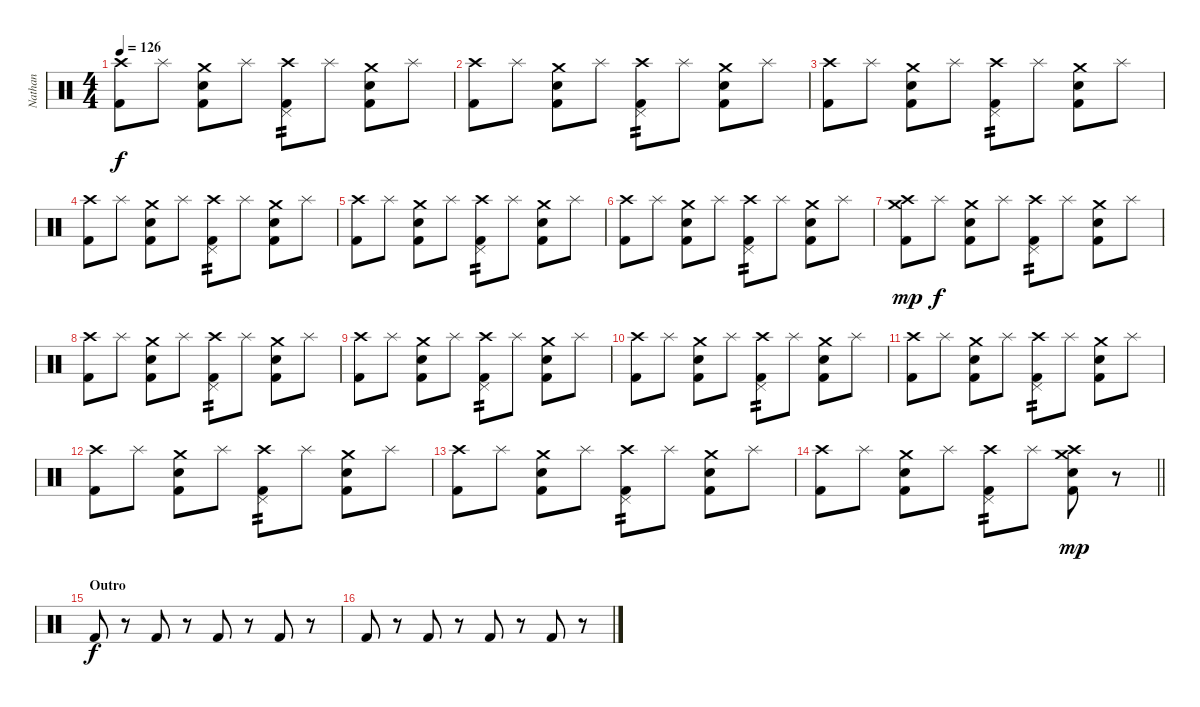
\track ("Nathan" "Nathan") {instrument percussion}
\staff {score}
\articulation defaults
\ts (4 4)
\tempo 126
\clef neutral
\ks c
("Kick (hit) 2" "Crash high (hit)").8{dy f} "Splash (hit)".8 ("Kick (hit) 2" "Snare (hit) 2" "Crash medium (hit)").8 "Splash (hit)".8 ("Kick (hit) 2" "Pedal Hi-Hat (hit)" "Crash high (hit)").8{tp 2} "Splash (hit)".8 ("Kick (hit) 2" "Snare (hit) 2" "Crash medium (hit)").8 "Splash (hit)".8 |
("Kick (hit) 2" "Crash high (hit)").8 "Splash (hit)".8 ("Kick (hit) 2" "Snare (hit) 2" "Crash medium (hit)").8 "Splash (hit)".8 ("Kick (hit) 2" "Pedal Hi-Hat (hit)" "Crash high (hit)").8{tp 2} "Splash (hit)".8 ("Kick (hit) 2" "Snare (hit) 2" "Crash medium (hit)").8 "Splash (hit)".8 |
("Kick (hit) 2" "Crash high (hit)").8 "Splash (hit)".8 ("Kick (hit) 2" "Snare (hit) 2" "Crash medium (hit)").8 "Splash (hit)".8 ("Kick (hit) 2" "Pedal Hi-Hat (hit)" "Crash high (hit)").8{tp 2} "Splash (hit)".8 ("Kick (hit) 2" "Snare (hit) 2" "Crash medium (hit)").8 "Splash (hit)".8 |
("Kick (hit) 2" "Crash high (hit)").8 "Splash (hit)".8 ("Kick (hit) 2" "Snare (hit) 2" "Crash medium (hit)").8 "Splash (hit)".8 ("Kick (hit) 2" "Pedal Hi-Hat (hit)" "Crash high (hit)").8{tp 2} "Splash (hit)".8 ("Kick (hit) 2" "Snare (hit) 2" "Crash medium (hit)").8 "Splash (hit)".8 |
("Kick (hit) 2" "Crash high (hit)").8 "Splash (hit)".8 ("Kick (hit) 2" "Snare (hit) 2" "Crash medium (hit)").8 "Splash (hit)".8 ("Kick (hit) 2" "Pedal Hi-Hat (hit)" "Crash high (hit)").8{tp 2} "Splash (hit)".8 ("Kick (hit) 2" "Snare (hit) 2" "Crash medium (hit)").8 "Splash (hit)".8 |
("Kick (hit) 2" "Crash high (hit)").8 "Splash (hit)".8 ("Kick (hit) 2" "Snare (hit) 2" "Crash medium (hit)").8 "Splash (hit)".8 ("Kick (hit) 2" "Pedal Hi-Hat (hit)" "Crash high (hit)").8{tp 2} "Splash (hit)".8 ("Kick (hit) 2" "Snare (hit) 2" "Crash medium (hit)").8 "Splash (hit)".8 |
("Kick (hit) 2" "Crash high (hit)" "Crash medium (hit)").8{dy mp} "Splash (hit)".8{dy f} ("Kick (hit) 2" "Snare (hit) 2" "Crash medium (hit)").8 "Splash (hit)".8 ("Kick (hit) 2" "Pedal Hi-Hat (hit)" "Crash high (hit)").8{tp 2} "Splash (hit)".8 ("Kick (hit) 2" "Snare (hit) 2" "Crash medium (hit)").8 "Splash (hit)".8 |
("Kick (hit) 2" "Crash high (hit)").8 "Splash (hit)".8 ("Kick (hit) 2" "Snare (hit) 2" "Crash medium (hit)").8 "Splash (hit)".8 ("Kick (hit) 2" "Pedal Hi-Hat (hit)" "Crash high (hit)").8{tp 2} "Splash (hit)".8 ("Kick (hit) 2" "Snare (hit) 2" "Crash medium (hit)").8 "Splash (hit)".8 |
("Kick (hit) 2" "Crash high (hit)").8 "Splash (hit)".8 ("Kick (hit) 2" "Snare (hit) 2" "Crash medium (hit)").8 "Splash (hit)".8 ("Kick (hit) 2" "Pedal Hi-Hat (hit)" "Crash high (hit)").8{tp 2} "Splash (hit)".8 ("Kick (hit) 2" "Snare (hit) 2" "Crash medium (hit)").8 "Splash (hit)".8 |
("Kick (hit) 2" "Crash high (hit)").8 "Splash (hit)".8 ("Kick (hit) 2" "Snare (hit) 2" "Crash medium (hit)").8 "Splash (hit)".8 ("Kick (hit) 2" "Pedal Hi-Hat (hit)" "Crash high (hit)").8{tp 2} "Splash (hit)".8 ("Kick (hit) 2" "Snare (hit) 2" "Crash medium (hit)").8 "Splash (hit)".8 |
("Kick (hit) 2" "Crash high (hit)").8 "Splash (hit)".8 ("Kick (hit) 2" "Snare (hit) 2" "Crash medium (hit)").8 "Splash (hit)".8 ("Kick (hit) 2" "Pedal Hi-Hat (hit)" "Crash high (hit)").8{tp 2} "Splash (hit)".8 ("Kick (hit) 2" "Snare (hit) 2" "Crash medium (hit)").8 "Splash (hit)".8 |
("Kick (hit) 2" "Crash high (hit)").8 "Splash (hit)".8 ("Kick (hit) 2" "Snare (hit) 2" "Crash medium (hit)").8 "Splash (hit)".8 ("Kick (hit) 2" "Pedal Hi-Hat (hit)" "Crash high (hit)").8{tp 2} "Splash (hit)".8 ("Kick (hit) 2" "Snare (hit) 2" "Crash medium (hit)").8 "Splash (hit)".8 |
("Kick (hit) 2" "Crash high (hit)").8 "Splash (hit)".8 ("Kick (hit) 2" "Snare (hit) 2" "Crash medium (hit)").8 "Splash (hit)".8 ("Kick (hit) 2" "Pedal Hi-Hat (hit)" "Crash high (hit)").8{tp 2} "Splash (hit)".8 ("Kick (hit) 2" "Snare (hit) 2" "Crash medium (hit)").8 "Splash (hit)".8 |
\barLineRight lightlight
("Kick (hit) 2" "Crash high (hit)").8 "Splash (hit)".8 ("Kick (hit) 2" "Snare (hit) 2" "Crash medium (hit)").8 "Splash (hit)".8 ("Kick (hit) 2" "Pedal Hi-Hat (hit)" "Crash high (hit)").8{tp 2} "Splash (hit)".8 ("Kick (hit) 2" "Snare (hit) 2" "Crash medium (hit)" "Crash high (hit)").8{dy mp} r.8 |
\section ("" "Outro")
"Kick (hit) 2".8{dy f} r.8 "Kick (hit) 2".8 r.8 "Kick (hit) 2".8 r.8 "Kick (hit) 2".8 r.8 |
"Kick (hit) 2".8 r.8 "Kick (hit) 2".8 r.8 "Kick (hit) 2".8 r.8 "Kick (hit) 2".8 r.8
